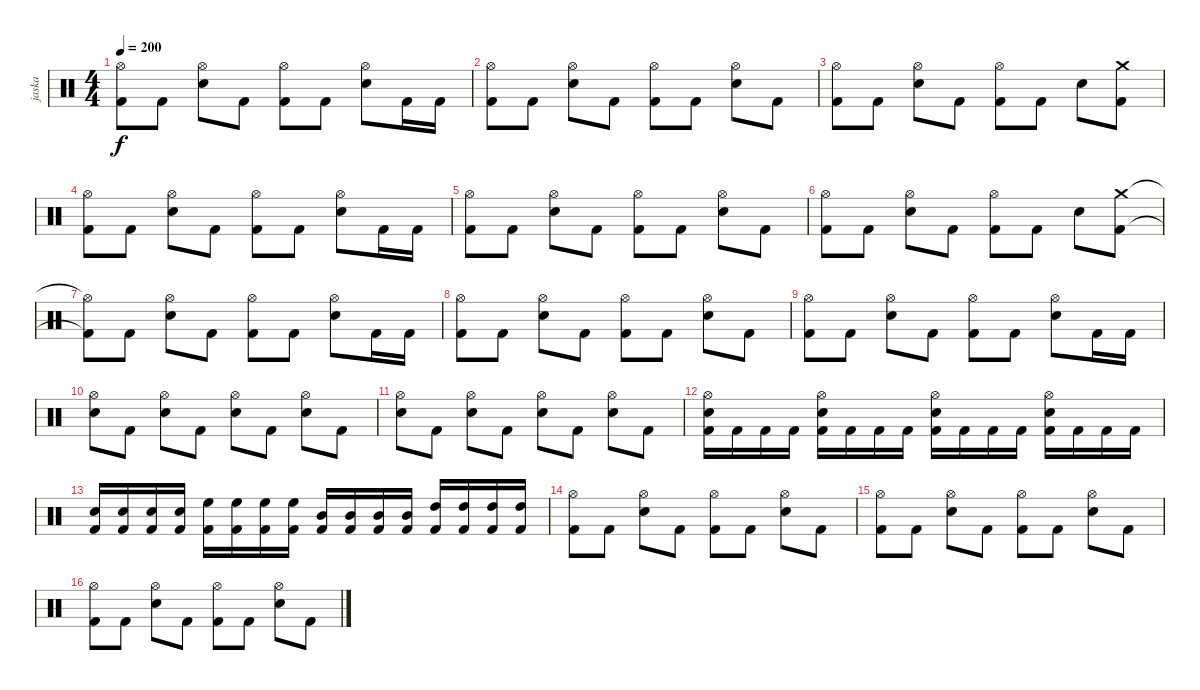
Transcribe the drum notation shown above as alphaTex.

\track ("jaska" "jaska") {instrument percussion}
\staff {score}
\articulation defaults
\ts (4 4)
\tempo 200
\clef neutral
\ks c
("Hi-Hat (open)" "Kick (hit) 2").8{dy f} "Kick (hit) 2".8 ("Hi-Hat (open)" "Snare (hit) 2").8 "Kick (hit) 2".8 ("Hi-Hat (open)" "Kick (hit) 2").8 "Kick (hit) 2".8 ("Hi-Hat (open)" "Snare (hit) 2").8 "Kick (hit) 2".16 "Kick (hit) 2".16 |
("Hi-Hat (open)" "Kick (hit) 2").8 "Kick (hit) 2".8 ("Hi-Hat (open)" "Snare (hit) 2").8 "Kick (hit) 2".8 ("Hi-Hat (open)" "Kick (hit) 2").8 "Kick (hit) 2".8 ("Hi-Hat (open)" "Snare (hit) 2").8 "Kick (hit) 2".8 |
("Hi-Hat (open)" "Kick (hit) 2").8 "Kick (hit) 2".8 ("Hi-Hat (open)" "Snare (hit) 2").8 "Kick (hit) 2".8 ("Hi-Hat (open)" "Kick (hit) 2").8 "Kick (hit) 2".8 "Snare (hit) 2".8 ("Crash medium (hit)" "Kick (hit) 2").8 |
("Hi-Hat (open)" "Kick (hit) 2").8 "Kick (hit) 2".8 ("Hi-Hat (open)" "Snare (hit) 2").8 "Kick (hit) 2".8 ("Hi-Hat (open)" "Kick (hit) 2").8 "Kick (hit) 2".8 ("Hi-Hat (open)" "Snare (hit) 2").8 "Kick (hit) 2".16 "Kick (hit) 2".16 |
("Hi-Hat (open)" "Kick (hit) 2").8 "Kick (hit) 2".8 ("Hi-Hat (open)" "Snare (hit) 2").8 "Kick (hit) 2".8 ("Hi-Hat (open)" "Kick (hit) 2").8 "Kick (hit) 2".8 ("Hi-Hat (open)" "Snare (hit) 2").8 "Kick (hit) 2".8 |
("Hi-Hat (open)" "Kick (hit) 2").8 "Kick (hit) 2".8 ("Hi-Hat (open)" "Snare (hit) 2").8 "Kick (hit) 2".8 ("Hi-Hat (open)" "Kick (hit) 2").8 "Kick (hit) 2".8 "Snare (hit) 2".8 ("Crash medium (hit)" "Kick (hit) 2").8 |
("Hi-Hat (open)"{t} "Kick (hit) 2"{t}).8 "Kick (hit) 2".8 ("Hi-Hat (open)" "Snare (hit) 2").8 "Kick (hit) 2".8 ("Hi-Hat (open)" "Kick (hit) 2").8 "Kick (hit) 2".8 ("Hi-Hat (open)" "Snare (hit) 2").8 "Kick (hit) 2".16 "Kick (hit) 2".16 |
("Hi-Hat (open)" "Kick (hit) 2").8 "Kick (hit) 2".8 ("Hi-Hat (open)" "Snare (hit) 2").8 "Kick (hit) 2".8 ("Hi-Hat (open)" "Kick (hit) 2").8 "Kick (hit) 2".8 ("Hi-Hat (open)" "Snare (hit) 2").8 "Kick (hit) 2".8 |
("Hi-Hat (open)" "Kick (hit) 2").8 "Kick (hit) 2".8 ("Hi-Hat (open)" "Snare (hit) 2").8 "Kick (hit) 2".8 ("Hi-Hat (open)" "Kick (hit) 2").8 "Kick (hit) 2".8 ("Hi-Hat (open)" "Snare (hit) 2").8 "Kick (hit) 2".16 "Kick (hit) 2".16 |
("Hi-Hat (open)" "Snare (hit) 2").8 "Kick (hit) 2".8 ("Hi-Hat (open)" "Snare (hit) 2").8 "Kick (hit) 2".8 ("Hi-Hat (open)" "Snare (hit) 2").8 "Kick (hit) 2".8 ("Hi-Hat (open)" "Snare (hit) 2").8 "Kick (hit) 2".8 |
("Hi-Hat (open)" "Snare (hit) 2").8 "Kick (hit) 2".8 ("Hi-Hat (open)" "Snare (hit) 2").8 "Kick (hit) 2".8 ("Hi-Hat (open)" "Snare (hit) 2").8 "Kick (hit) 2".8 ("Hi-Hat (open)" "Snare (hit) 2").8 "Kick (hit) 2".8 |
("Hi-Hat (open)" "Snare (hit) 2" "Kick (hit) 2").16 "Kick (hit) 2".16 "Kick (hit) 2".16 "Kick (hit) 2".16 ("Hi-Hat (open)" "Snare (hit) 2" "Kick (hit) 2").16 "Kick (hit) 2".16 "Kick (hit) 2".16 "Kick (hit) 2".16 ("Hi-Hat (open)" "Snare (hit) 2" "Kick (hit) 2").16 "Kick (hit) 2".16 "Kick (hit) 2".16 "Kick (hit) 2".16 ("Hi-Hat (open)" "Snare (hit) 2" "Kick (hit) 2").16 "Kick (hit) 2".16 "Kick (hit) 2".16 "Kick (hit) 2".16 |
("Snare (hit) 2" "Kick (hit) 2").16 ("Snare (hit) 2" "Kick (hit) 2").16 ("Snare (hit) 2" "Kick (hit) 2").16 ("Snare (hit) 2" "Kick (hit) 2").16 ("High Floor Tom (hit)" "Kick (hit) 2").16 ("High Floor Tom (hit)" "Kick (hit) 2").16 ("High Floor Tom (hit)" "Kick (hit) 2").16 ("High Floor Tom (hit)" "Kick (hit) 2").16 ("Mid Tom (hit)" "Kick (hit) 2").16 ("Mid Tom (hit)" "Kick (hit) 2").16 ("Mid Tom (hit)" "Kick (hit) 2").16 ("Mid Tom (hit)" "Kick (hit) 2").16 ("High Tom (hit)" "Kick (hit) 2").16 ("High Tom (hit)" "Kick (hit) 2").16 ("High Tom (hit)" "Kick (hit) 2").16 ("High Tom (hit)" "Kick (hit) 2").16 |
("Hi-Hat (open)" "Kick (hit) 2").8 "Kick (hit) 2".8 ("Hi-Hat (open)" "Electric Snare (hit)").8 "Kick (hit) 2".8 ("Hi-Hat (open)" "Kick (hit) 2").8 "Kick (hit) 2".8 ("Hi-Hat (open)" "Electric Snare (hit)").8 "Kick (hit) 2".8 |
("Hi-Hat (open)" "Kick (hit) 2").8 "Kick (hit) 2".8 ("Hi-Hat (open)" "Electric Snare (hit)").8 "Kick (hit) 2".8 ("Hi-Hat (open)" "Kick (hit) 2").8 "Kick (hit) 2".8 ("Hi-Hat (open)" "Electric Snare (hit)").8 "Kick (hit) 2".8 |
("Hi-Hat (open)" "Kick (hit) 2").8 "Kick (hit) 2".8 ("Hi-Hat (open)" "Electric Snare (hit)").8 "Kick (hit) 2".8 ("Hi-Hat (open)" "Kick (hit) 2").8 "Kick (hit) 2".8 ("Hi-Hat (open)" "Electric Snare (hit)").8 "Kick (hit) 2".8
